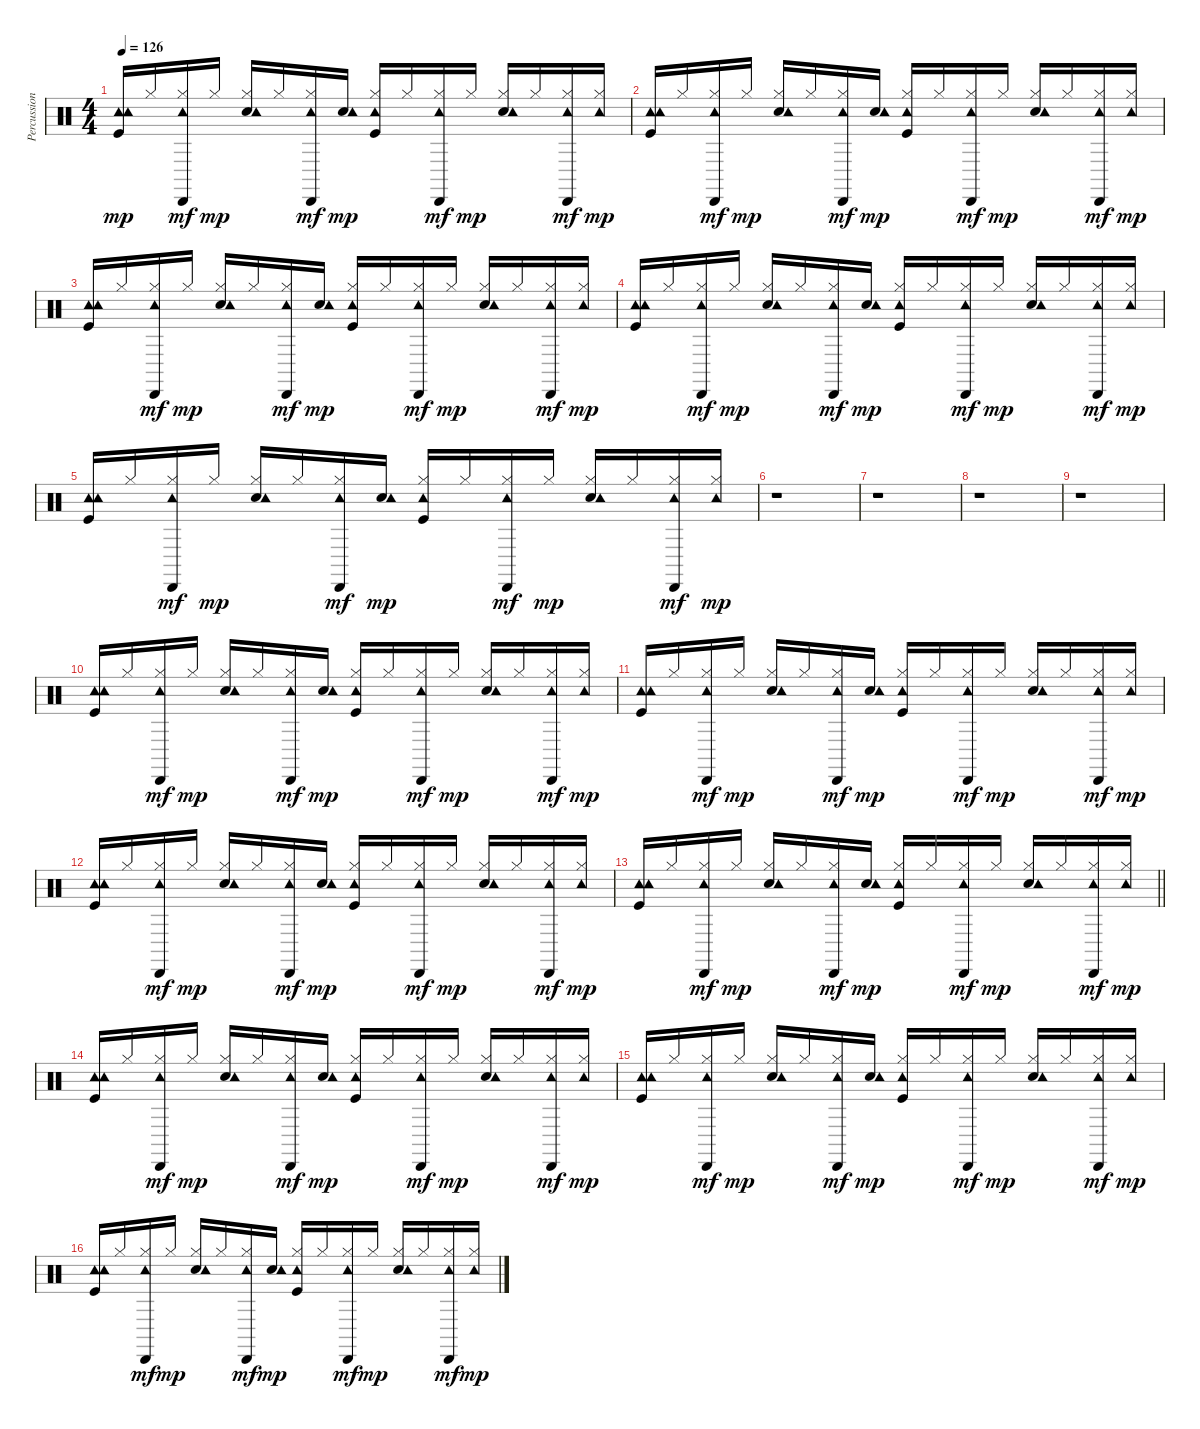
\track ("Percussion" "Percussion") {instrument percussion}
\staff {score}
\articulation defaults
\ts (4 4)
\tempo 126
\clef neutral
\ks c
("Kick (hit)" "Tambourine (hit)" "Tambourine (hit)").16{dy mp} "Hi-Hat (closed)".16 ("Hi-Hat (closed)" "Tambourine (hit)" "Cabasa (hit)").16{dy mf} "Hi-Hat (closed)".16{dy mp} ("Snare (hit) 2" "Hi-Hat (closed)" "Tambourine (hit)").16 "Hi-Hat (closed)".16 ("Hi-Hat (closed)" "Tambourine (hit)" "Cabasa (hit)").16{dy mf} ("Snare (hit) 2" "Tambourine (hit)").16{dy mp} ("Kick (hit)" "Hi-Hat (closed)" "Tambourine (hit)").16 "Hi-Hat (closed)".16 ("Hi-Hat (closed)" "Tambourine (hit)" "Cabasa (hit)").16{dy mf} "Hi-Hat (closed)".16{dy mp} ("Snare (hit) 2" "Hi-Hat (closed)" "Tambourine (hit)").16 "Hi-Hat (closed)".16 ("Hi-Hat (closed)" "Tambourine (hit)" "Cabasa (hit)").16{dy mf} ("Hi-Hat (closed)" "Tambourine (hit)").16{dy mp} |
("Kick (hit)" "Tambourine (hit)" "Tambourine (hit)").16 "Hi-Hat (closed)".16 ("Hi-Hat (closed)" "Tambourine (hit)" "Cabasa (hit)").16{dy mf} "Hi-Hat (closed)".16{dy mp} ("Snare (hit) 2" "Hi-Hat (closed)" "Tambourine (hit)").16 "Hi-Hat (closed)".16 ("Hi-Hat (closed)" "Tambourine (hit)" "Cabasa (hit)").16{dy mf} ("Snare (hit) 2" "Tambourine (hit)").16{dy mp} ("Kick (hit)" "Hi-Hat (closed)" "Tambourine (hit)").16 "Hi-Hat (closed)".16 ("Hi-Hat (closed)" "Tambourine (hit)" "Cabasa (hit)").16{dy mf} "Hi-Hat (closed)".16{dy mp} ("Snare (hit) 2" "Hi-Hat (closed)" "Tambourine (hit)").16 "Hi-Hat (closed)".16 ("Hi-Hat (closed)" "Tambourine (hit)" "Cabasa (hit)").16{dy mf} ("Hi-Hat (closed)" "Tambourine (hit)").16{dy mp} |
("Kick (hit)" "Tambourine (hit)" "Tambourine (hit)").16 "Hi-Hat (closed)".16 ("Hi-Hat (closed)" "Tambourine (hit)" "Cabasa (hit)").16{dy mf} "Hi-Hat (closed)".16{dy mp} ("Snare (hit) 2" "Hi-Hat (closed)" "Tambourine (hit)").16 "Hi-Hat (closed)".16 ("Hi-Hat (closed)" "Tambourine (hit)" "Cabasa (hit)").16{dy mf} ("Snare (hit) 2" "Tambourine (hit)").16{dy mp} ("Kick (hit)" "Hi-Hat (closed)" "Tambourine (hit)").16 "Hi-Hat (closed)".16 ("Hi-Hat (closed)" "Tambourine (hit)" "Cabasa (hit)").16{dy mf} "Hi-Hat (closed)".16{dy mp} ("Snare (hit) 2" "Hi-Hat (closed)" "Tambourine (hit)").16 "Hi-Hat (closed)".16 ("Hi-Hat (closed)" "Tambourine (hit)" "Cabasa (hit)").16{dy mf} ("Hi-Hat (closed)" "Tambourine (hit)").16{dy mp} |
("Kick (hit)" "Tambourine (hit)" "Tambourine (hit)").16 "Hi-Hat (closed)".16 ("Hi-Hat (closed)" "Tambourine (hit)" "Cabasa (hit)").16{dy mf} "Hi-Hat (closed)".16{dy mp} ("Snare (hit) 2" "Hi-Hat (closed)" "Tambourine (hit)").16 "Hi-Hat (closed)".16 ("Hi-Hat (closed)" "Tambourine (hit)" "Cabasa (hit)").16{dy mf} ("Snare (hit) 2" "Tambourine (hit)").16{dy mp} ("Kick (hit)" "Hi-Hat (closed)" "Tambourine (hit)").16 "Hi-Hat (closed)".16 ("Hi-Hat (closed)" "Tambourine (hit)" "Cabasa (hit)").16{dy mf} "Hi-Hat (closed)".16{dy mp} ("Snare (hit) 2" "Hi-Hat (closed)" "Tambourine (hit)").16 "Hi-Hat (closed)".16 ("Hi-Hat (closed)" "Tambourine (hit)" "Cabasa (hit)").16{dy mf} ("Hi-Hat (closed)" "Tambourine (hit)").16{dy mp} |
("Kick (hit)" "Tambourine (hit)" "Tambourine (hit)").16 "Hi-Hat (closed)".16 ("Hi-Hat (closed)" "Tambourine (hit)" "Cabasa (hit)").16{dy mf} "Hi-Hat (closed)".16{dy mp} ("Snare (hit) 2" "Hi-Hat (closed)" "Tambourine (hit)").16 "Hi-Hat (closed)".16 ("Hi-Hat (closed)" "Tambourine (hit)" "Cabasa (hit)").16{dy mf} ("Snare (hit) 2" "Tambourine (hit)").16{dy mp} ("Kick (hit)" "Hi-Hat (closed)" "Tambourine (hit)").16 "Hi-Hat (closed)".16 ("Hi-Hat (closed)" "Tambourine (hit)" "Cabasa (hit)").16{dy mf} "Hi-Hat (closed)".16{dy mp} ("Snare (hit) 2" "Hi-Hat (closed)" "Tambourine (hit)").16 "Hi-Hat (closed)".16 ("Hi-Hat (closed)" "Tambourine (hit)" "Cabasa (hit)").16{dy mf} ("Hi-Hat (closed)" "Tambourine (hit)").16{dy mp} |
r.1 |
r.1 |
r.1 |
r.1 |
("Kick (hit)" "Tambourine (hit)" "Tambourine (hit)").16 "Hi-Hat (closed)".16 ("Hi-Hat (closed)" "Tambourine (hit)" "Cabasa (hit)").16{dy mf} "Hi-Hat (closed)".16{dy mp} ("Snare (hit) 2" "Hi-Hat (closed)" "Tambourine (hit)").16 "Hi-Hat (closed)".16 ("Hi-Hat (closed)" "Tambourine (hit)" "Cabasa (hit)").16{dy mf} ("Snare (hit) 2" "Tambourine (hit)").16{dy mp} ("Kick (hit)" "Hi-Hat (closed)" "Tambourine (hit)").16 "Hi-Hat (closed)".16 ("Hi-Hat (closed)" "Tambourine (hit)" "Cabasa (hit)").16{dy mf} "Hi-Hat (closed)".16{dy mp} ("Snare (hit) 2" "Hi-Hat (closed)" "Tambourine (hit)").16 "Hi-Hat (closed)".16 ("Hi-Hat (closed)" "Tambourine (hit)" "Cabasa (hit)").16{dy mf} ("Hi-Hat (closed)" "Tambourine (hit)").16{dy mp} |
("Kick (hit)" "Tambourine (hit)" "Tambourine (hit)").16 "Hi-Hat (closed)".16 ("Hi-Hat (closed)" "Tambourine (hit)" "Cabasa (hit)").16{dy mf} "Hi-Hat (closed)".16{dy mp} ("Snare (hit) 2" "Hi-Hat (closed)" "Tambourine (hit)").16 "Hi-Hat (closed)".16 ("Hi-Hat (closed)" "Tambourine (hit)" "Cabasa (hit)").16{dy mf} ("Snare (hit) 2" "Tambourine (hit)").16{dy mp} ("Kick (hit)" "Hi-Hat (closed)" "Tambourine (hit)").16 "Hi-Hat (closed)".16 ("Hi-Hat (closed)" "Tambourine (hit)" "Cabasa (hit)").16{dy mf} "Hi-Hat (closed)".16{dy mp} ("Snare (hit) 2" "Hi-Hat (closed)" "Tambourine (hit)").16 "Hi-Hat (closed)".16 ("Hi-Hat (closed)" "Tambourine (hit)" "Cabasa (hit)").16{dy mf} ("Hi-Hat (closed)" "Tambourine (hit)").16{dy mp} |
("Kick (hit)" "Tambourine (hit)" "Tambourine (hit)").16 "Hi-Hat (closed)".16 ("Hi-Hat (closed)" "Tambourine (hit)" "Cabasa (hit)").16{dy mf} "Hi-Hat (closed)".16{dy mp} ("Snare (hit) 2" "Hi-Hat (closed)" "Tambourine (hit)").16 "Hi-Hat (closed)".16 ("Hi-Hat (closed)" "Tambourine (hit)" "Cabasa (hit)").16{dy mf} ("Snare (hit) 2" "Tambourine (hit)").16{dy mp} ("Kick (hit)" "Hi-Hat (closed)" "Tambourine (hit)").16 "Hi-Hat (closed)".16 ("Hi-Hat (closed)" "Tambourine (hit)" "Cabasa (hit)").16{dy mf} "Hi-Hat (closed)".16{dy mp} ("Snare (hit) 2" "Hi-Hat (closed)" "Tambourine (hit)").16 "Hi-Hat (closed)".16 ("Hi-Hat (closed)" "Tambourine (hit)" "Cabasa (hit)").16{dy mf} ("Hi-Hat (closed)" "Tambourine (hit)").16{dy mp} |
\barLineRight lightlight
("Kick (hit)" "Tambourine (hit)" "Tambourine (hit)").16 "Hi-Hat (closed)".16 ("Hi-Hat (closed)" "Tambourine (hit)" "Cabasa (hit)").16{dy mf} "Hi-Hat (closed)".16{dy mp} ("Snare (hit) 2" "Hi-Hat (closed)" "Tambourine (hit)").16 "Hi-Hat (closed)".16 ("Hi-Hat (closed)" "Tambourine (hit)" "Cabasa (hit)").16{dy mf} ("Snare (hit) 2" "Tambourine (hit)").16{dy mp} ("Kick (hit)" "Hi-Hat (closed)" "Tambourine (hit)").16 "Hi-Hat (closed)".16 ("Hi-Hat (closed)" "Tambourine (hit)" "Cabasa (hit)").16{dy mf} "Hi-Hat (closed)".16{dy mp} ("Snare (hit) 2" "Hi-Hat (closed)" "Tambourine (hit)").16 "Hi-Hat (closed)".16 ("Hi-Hat (closed)" "Tambourine (hit)" "Cabasa (hit)").16{dy mf} ("Hi-Hat (closed)" "Tambourine (hit)").16{dy mp} |
("Kick (hit)" "Tambourine (hit)" "Tambourine (hit)").16 "Hi-Hat (closed)".16 ("Hi-Hat (closed)" "Tambourine (hit)" "Cabasa (hit)").16{dy mf} "Hi-Hat (closed)".16{dy mp} ("Snare (hit) 2" "Hi-Hat (closed)" "Tambourine (hit)").16 "Hi-Hat (closed)".16 ("Hi-Hat (closed)" "Tambourine (hit)" "Cabasa (hit)").16{dy mf} ("Snare (hit) 2" "Tambourine (hit)").16{dy mp} ("Kick (hit)" "Hi-Hat (closed)" "Tambourine (hit)").16 "Hi-Hat (closed)".16 ("Hi-Hat (closed)" "Tambourine (hit)" "Cabasa (hit)").16{dy mf} "Hi-Hat (closed)".16{dy mp} ("Snare (hit) 2" "Hi-Hat (closed)" "Tambourine (hit)").16 "Hi-Hat (closed)".16 ("Hi-Hat (closed)" "Tambourine (hit)" "Cabasa (hit)").16{dy mf} ("Hi-Hat (closed)" "Tambourine (hit)").16{dy mp} |
("Kick (hit)" "Tambourine (hit)" "Tambourine (hit)").16 "Hi-Hat (closed)".16 ("Hi-Hat (closed)" "Tambourine (hit)" "Cabasa (hit)").16{dy mf} "Hi-Hat (closed)".16{dy mp} ("Snare (hit) 2" "Hi-Hat (closed)" "Tambourine (hit)").16 "Hi-Hat (closed)".16 ("Hi-Hat (closed)" "Tambourine (hit)" "Cabasa (hit)").16{dy mf} ("Snare (hit) 2" "Tambourine (hit)").16{dy mp} ("Kick (hit)" "Hi-Hat (closed)" "Tambourine (hit)").16 "Hi-Hat (closed)".16 ("Hi-Hat (closed)" "Tambourine (hit)" "Cabasa (hit)").16{dy mf} "Hi-Hat (closed)".16{dy mp} ("Snare (hit) 2" "Hi-Hat (closed)" "Tambourine (hit)").16 "Hi-Hat (closed)".16 ("Hi-Hat (closed)" "Tambourine (hit)" "Cabasa (hit)").16{dy mf} ("Hi-Hat (closed)" "Tambourine (hit)").16{dy mp} |
("Kick (hit)" "Tambourine (hit)" "Tambourine (hit)").16 "Hi-Hat (closed)".16 ("Hi-Hat (closed)" "Tambourine (hit)" "Cabasa (hit)").16{dy mf} "Hi-Hat (closed)".16{dy mp} ("Snare (hit) 2" "Hi-Hat (closed)" "Tambourine (hit)").16 "Hi-Hat (closed)".16 ("Hi-Hat (closed)" "Tambourine (hit)" "Cabasa (hit)").16{dy mf} ("Snare (hit) 2" "Tambourine (hit)").16{dy mp} ("Kick (hit)" "Hi-Hat (closed)" "Tambourine (hit)").16 "Hi-Hat (closed)".16 ("Hi-Hat (closed)" "Tambourine (hit)" "Cabasa (hit)").16{dy mf} "Hi-Hat (closed)".16{dy mp} ("Snare (hit) 2" "Hi-Hat (closed)" "Tambourine (hit)").16 "Hi-Hat (closed)".16 ("Hi-Hat (closed)" "Tambourine (hit)" "Cabasa (hit)").16{dy mf} ("Hi-Hat (closed)" "Tambourine (hit)").16{dy mp}
